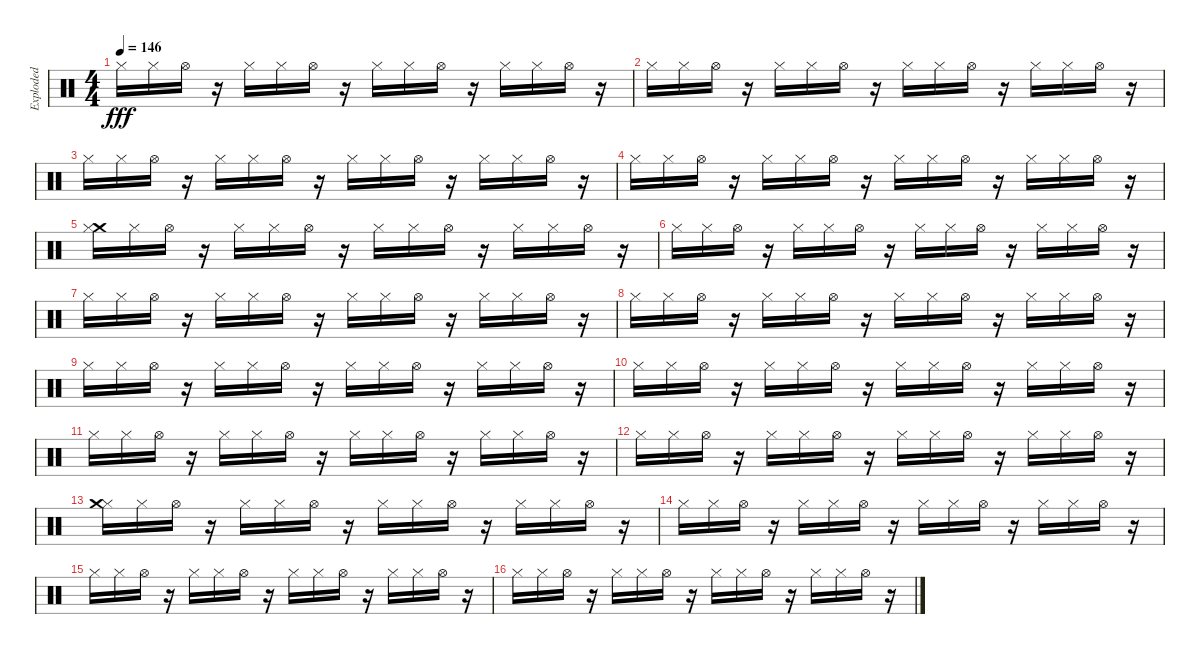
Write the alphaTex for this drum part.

\track ("Exploded" "Exploded") {instrument percussion}
\staff {score}
\articulation defaults
\ts (4 4)
\tempo 146
\clef neutral
\ks c "Hi-Hat (closed)".16{dy fff} "Hi-Hat (closed)".16 "Hi-Hat (open)".16
r.16 "Hi-Hat (closed)".16 "Hi-Hat (closed)".16 "Hi-Hat (open)".16 r.16 "Hi-Hat (closed)".16 "Hi-Hat (closed)".16 "Hi-Hat (open)".16 r.16 "Hi-Hat (closed)".16 "Hi-Hat (closed)".16 "Hi-Hat (open)".16 r.16 |
"Hi-Hat (closed)".16 "Hi-Hat (closed)".16 "Hi-Hat (open)".16 r.16 "Hi-Hat (closed)".16 "Hi-Hat (closed)".16 "Hi-Hat (open)".16 r.16 "Hi-Hat (closed)".16 "Hi-Hat (closed)".16 "Hi-Hat (open)".16 r.16 "Hi-Hat (closed)".16 "Hi-Hat (closed)".16 "Hi-Hat (open)".16 r.16 |
"Hi-Hat (closed)".16 "Hi-Hat (closed)".16 "Hi-Hat (open)".16 r.16 "Hi-Hat (closed)".16 "Hi-Hat (closed)".16 "Hi-Hat (open)".16 r.16 "Hi-Hat (closed)".16 "Hi-Hat (closed)".16 "Hi-Hat (open)".16 r.16 "Hi-Hat (closed)".16 "Hi-Hat (closed)".16 "Hi-Hat (open)".16 r.16 |
"Hi-Hat (closed)".16 "Hi-Hat (closed)".16 "Hi-Hat (open)".16 r.16 "Hi-Hat (closed)".16 "Hi-Hat (closed)".16 "Hi-Hat (open)".16 r.16 "Hi-Hat (closed)".16 "Hi-Hat (closed)".16 "Hi-Hat (open)".16 r.16 "Hi-Hat (closed)".16 "Hi-Hat (closed)".16 "Hi-Hat (open)".16 r.16 |
("Crash medium (hit)" "Hi-Hat (closed)").16 "Hi-Hat (closed)".16 "Hi-Hat (open)".16 r.16 "Hi-Hat (closed)".16 "Hi-Hat (closed)".16 "Hi-Hat (open)".16 r.16 "Hi-Hat (closed)".16 "Hi-Hat (closed)".16 "Hi-Hat (open)".16 r.16 "Hi-Hat (closed)".16 "Hi-Hat (closed)".16 "Hi-Hat (open)".16 r.16 |
"Hi-Hat (closed)".16 "Hi-Hat (closed)".16 "Hi-Hat (open)".16 r.16 "Hi-Hat (closed)".16 "Hi-Hat (closed)".16 "Hi-Hat (open)".16 r.16 "Hi-Hat (closed)".16 "Hi-Hat (closed)".16 "Hi-Hat (open)".16 r.16 "Hi-Hat (closed)".16 "Hi-Hat (closed)".16 "Hi-Hat (open)".16 r.16 |
"Hi-Hat (closed)".16 "Hi-Hat (closed)".16 "Hi-Hat (open)".16 r.16 "Hi-Hat (closed)".16 "Hi-Hat (closed)".16 "Hi-Hat (open)".16 r.16 "Hi-Hat (closed)".16 "Hi-Hat (closed)".16 "Hi-Hat (open)".16 r.16 "Hi-Hat (closed)".16 "Hi-Hat (closed)".16 "Hi-Hat (open)".16 r.16 |
"Hi-Hat (closed)".16 "Hi-Hat (closed)".16 "Hi-Hat (open)".16 r.16 "Hi-Hat (closed)".16 "Hi-Hat (closed)".16 "Hi-Hat (open)".16 r.16 "Hi-Hat (closed)".16 "Hi-Hat (closed)".16 "Hi-Hat (open)".16 r.16 "Hi-Hat (closed)".16 "Hi-Hat (closed)".16 "Hi-Hat (open)".16 r.16 |
"Hi-Hat (closed)".16 "Hi-Hat (closed)".16 "Hi-Hat (open)".16 r.16 "Hi-Hat (closed)".16 "Hi-Hat (closed)".16 "Hi-Hat (open)".16 r.16 "Hi-Hat (closed)".16 "Hi-Hat (closed)".16 "Hi-Hat (open)".16 r.16 "Hi-Hat (closed)".16 "Hi-Hat (closed)".16 "Hi-Hat (open)".16 r.16 |
"Hi-Hat (closed)".16 "Hi-Hat (closed)".16 "Hi-Hat (open)".16 r.16 "Hi-Hat (closed)".16 "Hi-Hat (closed)".16 "Hi-Hat (open)".16 r.16 "Hi-Hat (closed)".16 "Hi-Hat (closed)".16 "Hi-Hat (open)".16 r.16 "Hi-Hat (closed)".16 "Hi-Hat (closed)".16 "Hi-Hat (open)".16 r.16 |
"Hi-Hat (closed)".16 "Hi-Hat (closed)".16 "Hi-Hat (open)".16 r.16 "Hi-Hat (closed)".16 "Hi-Hat (closed)".16 "Hi-Hat (open)".16 r.16 "Hi-Hat (closed)".16 "Hi-Hat (closed)".16 "Hi-Hat (open)".16 r.16 "Hi-Hat (closed)".16 "Hi-Hat (closed)".16 "Hi-Hat (open)".16 r.16 |
"Hi-Hat (closed)".16 "Hi-Hat (closed)".16 "Hi-Hat (open)".16 r.16 "Hi-Hat (closed)".16 "Hi-Hat (closed)".16 "Hi-Hat (open)".16 r.16 "Hi-Hat (closed)".16 "Hi-Hat (closed)".16 "Hi-Hat (open)".16 r.16 "Hi-Hat (closed)".16 "Hi-Hat (closed)".16 "Hi-Hat (open)".16 r.16 |
("Hi-Hat (closed)" "Crash medium (hit)").16 "Hi-Hat (closed)".16 "Hi-Hat (open)".16 r.16 "Hi-Hat (closed)".16 "Hi-Hat (closed)".16 "Hi-Hat (open)".16 r.16 "Hi-Hat (closed)".16 "Hi-Hat (closed)".16 "Hi-Hat (open)".16 r.16 "Hi-Hat (closed)".16 "Hi-Hat (closed)".16 "Hi-Hat (open)".16 r.16 |
"Hi-Hat (closed)".16 "Hi-Hat (closed)".16 "Hi-Hat (open)".16 r.16 "Hi-Hat (closed)".16 "Hi-Hat (closed)".16 "Hi-Hat (open)".16 r.16 "Hi-Hat (closed)".16 "Hi-Hat (closed)".16 "Hi-Hat (open)".16 r.16 "Hi-Hat (closed)".16 "Hi-Hat (closed)".16 "Hi-Hat (open)".16 r.16 |
"Hi-Hat (closed)".16 "Hi-Hat (closed)".16 "Hi-Hat (open)".16 r.16 "Hi-Hat (closed)".16 "Hi-Hat (closed)".16 "Hi-Hat (open)".16 r.16 "Hi-Hat (closed)".16 "Hi-Hat (closed)".16 "Hi-Hat (open)".16 r.16 "Hi-Hat (closed)".16 "Hi-Hat (closed)".16 "Hi-Hat (open)".16 r.16 |
"Hi-Hat (closed)".16 "Hi-Hat (closed)".16 "Hi-Hat (open)".16 r.16 "Hi-Hat (closed)".16 "Hi-Hat (closed)".16 "Hi-Hat (open)".16 r.16 "Hi-Hat (closed)".16 "Hi-Hat (closed)".16 "Hi-Hat (open)".16 r.16 "Hi-Hat (closed)".16 "Hi-Hat (closed)".16 "Hi-Hat (open)".16 r.16
